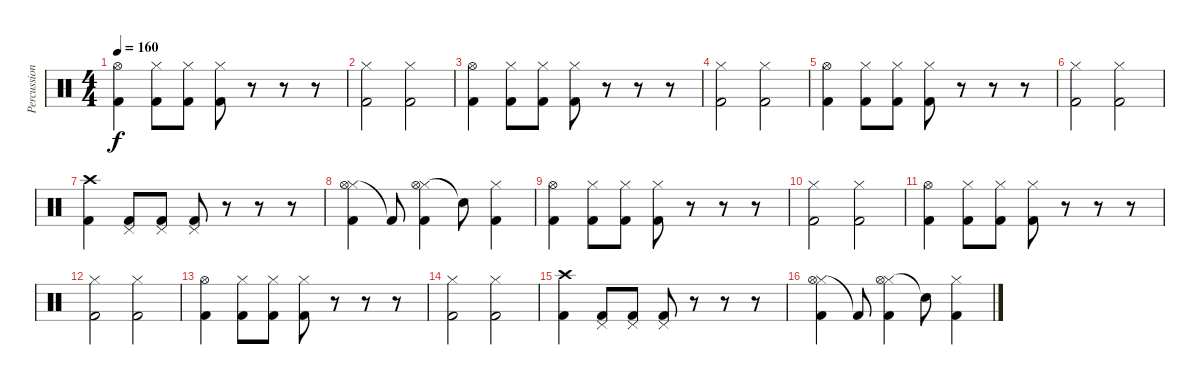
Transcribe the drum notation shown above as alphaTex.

\track ("Percussion" "Percussion") {instrument percussion}
\staff {score}
\articulation defaults
\ts (4 4)
\tempo 160
\clef neutral
\ks c
("Hi-Hat (open)" "Kick (hit) 2").4{dy f} ("Hi-Hat (closed)" "Kick (hit) 2").8 ("Hi-Hat (closed)" "Kick (hit) 2").8 ("Hi-Hat (closed)" "Kick (hit) 2").8 r.8 r.8 r.8 |
("Hi-Hat (closed)" "Kick (hit) 2").2 ("Hi-Hat (closed)" "Kick (hit) 2").2 |
("Hi-Hat (open)" "Kick (hit) 2").4 ("Hi-Hat (closed)" "Kick (hit) 2").8 ("Hi-Hat (closed)" "Kick (hit) 2").8 ("Hi-Hat (closed)" "Kick (hit) 2").8 r.8 r.8 r.8 |
("Hi-Hat (closed)" "Kick (hit) 2").2 ("Hi-Hat (closed)" "Kick (hit) 2").2 |
("Hi-Hat (open)" "Kick (hit) 2").4 ("Hi-Hat (closed)" "Kick (hit) 2").8 ("Hi-Hat (closed)" "Kick (hit) 2").8 ("Hi-Hat (closed)" "Kick (hit) 2").8 r.8 r.8 r.8 |
("Hi-Hat (closed)" "Kick (hit) 2").2 ("Hi-Hat (closed)" "Kick (hit) 2").2 |
("Crash high (hit)" "Kick (hit) 2").4 ("Pedal Hi-Hat (hit)" "Kick (hit) 2").8 ("Pedal Hi-Hat (hit)" "Kick (hit) 2").8 ("Pedal Hi-Hat (hit)" "Kick (hit) 2").8 r.8 r.8 r.8 |
("Hi-Hat (closed)" "Hi-Hat (open)" "Kick (hit) 2").4 "Kick (hit) 2"{t}.8 ("Hi-Hat (closed)" "Hi-Hat (open)" "Kick (hit) 2").4 "Snare (hit)"{t}.8 ("Hi-Hat (closed)" "Kick (hit) 2").4 |
("Hi-Hat (open)" "Kick (hit) 2").4 ("Hi-Hat (closed)" "Kick (hit) 2").8 ("Hi-Hat (closed)" "Kick (hit) 2").8 ("Hi-Hat (closed)" "Kick (hit) 2").8 r.8 r.8 r.8 |
("Hi-Hat (closed)" "Kick (hit) 2").2 ("Hi-Hat (closed)" "Kick (hit) 2").2 |
("Hi-Hat (open)" "Kick (hit) 2").4 ("Hi-Hat (closed)" "Kick (hit) 2").8 ("Hi-Hat (closed)" "Kick (hit) 2").8 ("Hi-Hat (closed)" "Kick (hit) 2").8 r.8 r.8 r.8 |
("Hi-Hat (closed)" "Kick (hit) 2").2 ("Hi-Hat (closed)" "Kick (hit) 2").2 |
("Hi-Hat (open)" "Kick (hit) 2").4 ("Hi-Hat (closed)" "Kick (hit) 2").8 ("Hi-Hat (closed)" "Kick (hit) 2").8 ("Hi-Hat (closed)" "Kick (hit) 2").8 r.8 r.8 r.8 |
("Hi-Hat (closed)" "Kick (hit) 2").2 ("Hi-Hat (closed)" "Kick (hit) 2").2 |
("Crash high (hit)" "Kick (hit) 2").4 ("Pedal Hi-Hat (hit)" "Kick (hit) 2").8 ("Pedal Hi-Hat (hit)" "Kick (hit) 2").8 ("Pedal Hi-Hat (hit)" "Kick (hit) 2").8 r.8 r.8 r.8 |
("Hi-Hat (closed)" "Hi-Hat (open)" "Kick (hit) 2").4 "Kick (hit) 2"{t}.8 ("Hi-Hat (closed)" "Hi-Hat (open)" "Kick (hit) 2").4 "Snare (hit)"{t}.8 ("Hi-Hat (closed)" "Kick (hit) 2").4
